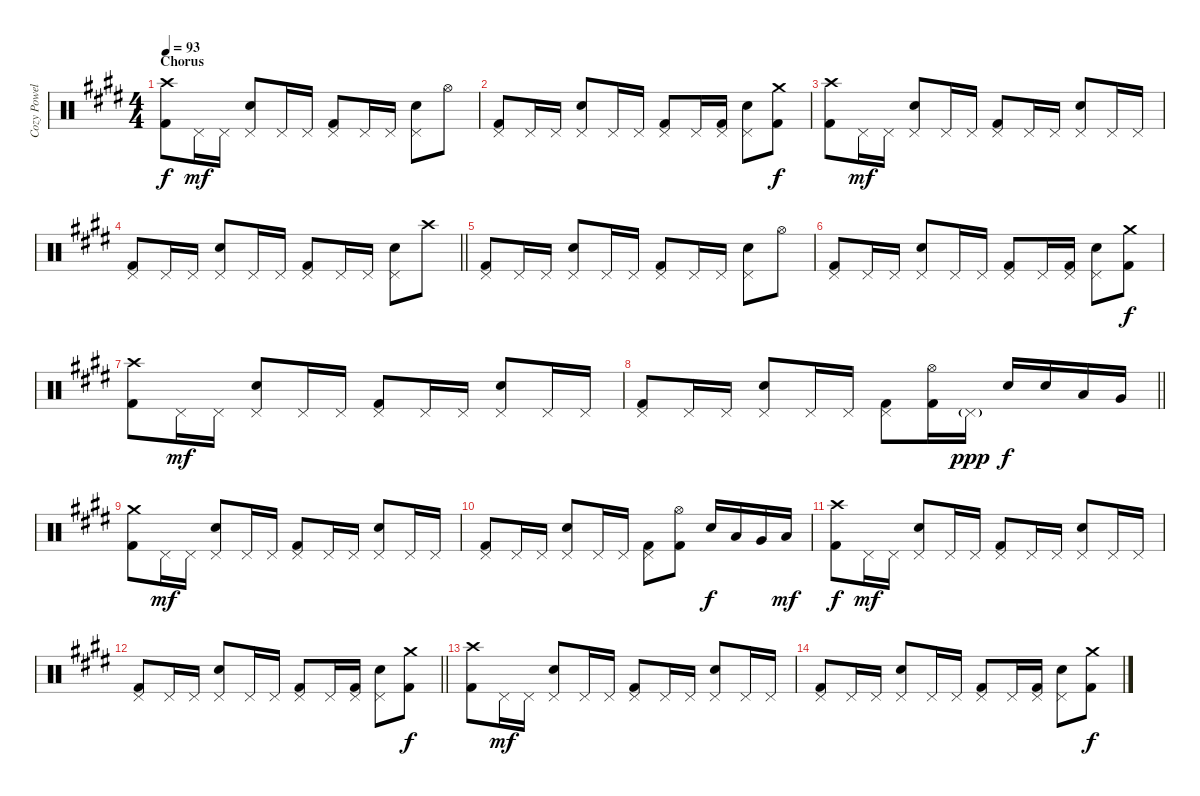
\track ("Cozy Powell" "Cozy Powel") {instrument percussion}
\staff {score}
\articulation defaults
\ts (4 4)
\section ("" "Chorus")
\tempo 93
\clef neutral
\ks c#minor
("Kick (hit) 2" "Crash high (hit)").8{dy f} "Pedal Hi-Hat (hit)".16{dy mf} "Pedal Hi-Hat (hit)".16 ("Pedal Hi-Hat (hit)" "Snare (hit) 2").8 "Pedal Hi-Hat (hit)".16 "Pedal Hi-Hat (hit)".16 ("Kick (hit) 2" "Pedal Hi-Hat (hit)").8 "Pedal Hi-Hat (hit)".16 "Pedal Hi-Hat (hit)".16 ("Pedal Hi-Hat (hit)" "Snare (hit) 2").8 "Hi-Hat (open)".8 |
("Kick (hit) 2" "Pedal Hi-Hat (hit)").8 "Pedal Hi-Hat (hit)".16 "Pedal Hi-Hat (hit)".16 ("Pedal Hi-Hat (hit)" "Snare (hit) 2").8 "Pedal Hi-Hat (hit)".16 "Pedal Hi-Hat (hit)".16 ("Kick (hit) 2" "Pedal Hi-Hat (hit)").8 "Pedal Hi-Hat (hit)".16 ("Kick (hit) 2" "Pedal Hi-Hat (hit)").16 ("Pedal Hi-Hat (hit)" "Snare (hit) 2").8 ("Kick (hit) 2" "Crash medium (hit)").8{dy f} |
("Kick (hit) 2" "Crash high (hit)").8 "Pedal Hi-Hat (hit)".16{dy mf} "Pedal Hi-Hat (hit)".16 ("Pedal Hi-Hat (hit)" "Snare (hit) 2").8 "Pedal Hi-Hat (hit)".16 "Pedal Hi-Hat (hit)".16 ("Kick (hit) 2" "Pedal Hi-Hat (hit)").8 "Pedal Hi-Hat (hit)".16 "Pedal Hi-Hat (hit)".16 ("Pedal Hi-Hat (hit)" "Snare (hit) 2").8 "Pedal Hi-Hat (hit)".16 "Pedal Hi-Hat (hit)".16 |
\barLineRight lightlight
("Kick (hit) 2" "Pedal Hi-Hat (hit)").8 "Pedal Hi-Hat (hit)".16 "Pedal Hi-Hat (hit)".16 ("Pedal Hi-Hat (hit)" "Snare (hit) 2").8 "Pedal Hi-Hat (hit)".16 "Pedal Hi-Hat (hit)".16 ("Kick (hit) 2" "Pedal Hi-Hat (hit)").8 "Pedal Hi-Hat (hit)".16 "Pedal Hi-Hat (hit)".16 ("Pedal Hi-Hat (hit)" "Snare (hit) 2").8 "Crash high (hit)".8 |
("Kick (hit) 2" "Pedal Hi-Hat (hit)").8 "Pedal Hi-Hat (hit)".16 "Pedal Hi-Hat (hit)".16 ("Pedal Hi-Hat (hit)" "Snare (hit) 2").8 "Pedal Hi-Hat (hit)".16 "Pedal Hi-Hat (hit)".16 ("Kick (hit) 2" "Pedal Hi-Hat (hit)").8 "Pedal Hi-Hat (hit)".16 "Pedal Hi-Hat (hit)".16 ("Pedal Hi-Hat (hit)" "Snare (hit) 2").8 "Hi-Hat (open)".8 |
("Kick (hit) 2" "Pedal Hi-Hat (hit)").8 "Pedal Hi-Hat (hit)".16 "Pedal Hi-Hat (hit)".16 ("Pedal Hi-Hat (hit)" "Snare (hit) 2").8 "Pedal Hi-Hat (hit)".16 "Pedal Hi-Hat (hit)".16 ("Kick (hit) 2" "Pedal Hi-Hat (hit)").8 "Pedal Hi-Hat (hit)".16 ("Kick (hit) 2" "Pedal Hi-Hat (hit)").16 ("Pedal Hi-Hat (hit)" "Snare (hit) 2").8 ("Kick (hit) 2" "Crash medium (hit)").8{dy f} |
("Kick (hit) 2" "Crash high (hit)").8 "Pedal Hi-Hat (hit)".16{dy mf} "Pedal Hi-Hat (hit)".16 ("Pedal Hi-Hat (hit)" "Snare (hit) 2").8 "Pedal Hi-Hat (hit)".16 "Pedal Hi-Hat (hit)".16 ("Kick (hit) 2" "Pedal Hi-Hat (hit)").8 "Pedal Hi-Hat (hit)".16 "Pedal Hi-Hat (hit)".16 ("Pedal Hi-Hat (hit)" "Snare (hit) 2").8 "Pedal Hi-Hat (hit)".16 "Pedal Hi-Hat (hit)".16 |
\barLineRight lightlight
("Kick (hit) 2" "Pedal Hi-Hat (hit)").8 "Pedal Hi-Hat (hit)".16 "Pedal Hi-Hat (hit)".16 ("Pedal Hi-Hat (hit)" "Snare (hit) 2").8 "Pedal Hi-Hat (hit)".16 "Pedal Hi-Hat (hit)".16 ("Kick (hit) 2" "Pedal Hi-Hat (hit)").8 ("Kick (hit) 2" "Hi-Hat (open)").16 "Pedal Hi-Hat (hit)"{g}.16{dy ppp} "Snare (hit) 2".16{dy f} "Snare (hit) 2".16 "Low Tom (hit)".16 "Very Low Tom (hit)".16 |
("Kick (hit) 2" "Crash medium (hit)").8 "Pedal Hi-Hat (hit)".16{dy mf} "Pedal Hi-Hat (hit)".16 ("Pedal Hi-Hat (hit)" "Snare (hit) 2").8 "Pedal Hi-Hat (hit)".16 "Pedal Hi-Hat (hit)".16 ("Kick (hit) 2" "Pedal Hi-Hat (hit)").8 "Pedal Hi-Hat (hit)".16 "Pedal Hi-Hat (hit)".16 ("Pedal Hi-Hat (hit)" "Snare (hit) 2").8 "Pedal Hi-Hat (hit)".16 "Pedal Hi-Hat (hit)".16 |
("Kick (hit) 2" "Pedal Hi-Hat (hit)").8 "Pedal Hi-Hat (hit)".16 "Pedal Hi-Hat (hit)".16 ("Pedal Hi-Hat (hit)" "Snare (hit) 2").8 "Pedal Hi-Hat (hit)".16 "Pedal Hi-Hat (hit)".16 ("Kick (hit) 2" "Pedal Hi-Hat (hit)").8 ("Kick (hit) 2" "Hi-Hat (open)").8 "Snare (hit) 2".16{dy f} "Low Tom (hit)".16 "Very Low Tom (hit)".16 "Low Floor Tom (hit)".16{dy mf} |
("Kick (hit) 2" "Crash high (hit)").8{dy f} "Pedal Hi-Hat (hit)".16{dy mf} "Pedal Hi-Hat (hit)".16 ("Pedal Hi-Hat (hit)" "Snare (hit) 2").8 "Pedal Hi-Hat (hit)".16 "Pedal Hi-Hat (hit)".16 ("Kick (hit) 2" "Pedal Hi-Hat (hit)").8 "Pedal Hi-Hat (hit)".16 "Pedal Hi-Hat (hit)".16 ("Pedal Hi-Hat (hit)" "Snare (hit) 2").8 "Pedal Hi-Hat (hit)".16 "Pedal Hi-Hat (hit)".16 |
\barLineRight lightlight
("Kick (hit) 2" "Pedal Hi-Hat (hit)").8 "Pedal Hi-Hat (hit)".16 "Pedal Hi-Hat (hit)".16 ("Pedal Hi-Hat (hit)" "Snare (hit) 2").8 "Pedal Hi-Hat (hit)".16 "Pedal Hi-Hat (hit)".16 ("Kick (hit) 2" "Pedal Hi-Hat (hit)").8 "Pedal Hi-Hat (hit)".16 ("Kick (hit) 2" "Pedal Hi-Hat (hit)").16 ("Pedal Hi-Hat (hit)" "Snare (hit) 2").8 ("Kick (hit) 2" "Crash medium (hit)").8{dy f} |
("Kick (hit) 2" "Crash high (hit)").8 "Pedal Hi-Hat (hit)".16{dy mf} "Pedal Hi-Hat (hit)".16 ("Pedal Hi-Hat (hit)" "Snare (hit) 2").8 "Pedal Hi-Hat (hit)".16 "Pedal Hi-Hat (hit)".16 ("Kick (hit) 2" "Pedal Hi-Hat (hit)").8 "Pedal Hi-Hat (hit)".16 "Pedal Hi-Hat (hit)".16 ("Pedal Hi-Hat (hit)" "Snare (hit) 2").8 "Pedal Hi-Hat (hit)".16 "Pedal Hi-Hat (hit)".16 |
("Kick (hit) 2" "Pedal Hi-Hat (hit)").8 "Pedal Hi-Hat (hit)".16 "Pedal Hi-Hat (hit)".16 ("Pedal Hi-Hat (hit)" "Snare (hit) 2").8 "Pedal Hi-Hat (hit)".16 "Pedal Hi-Hat (hit)".16 ("Kick (hit) 2" "Pedal Hi-Hat (hit)").8 "Pedal Hi-Hat (hit)".16 ("Kick (hit) 2" "Pedal Hi-Hat (hit)").16 ("Pedal Hi-Hat (hit)" "Snare (hit) 2").8 ("Kick (hit) 2" "Crash medium (hit)").8{dy f}
